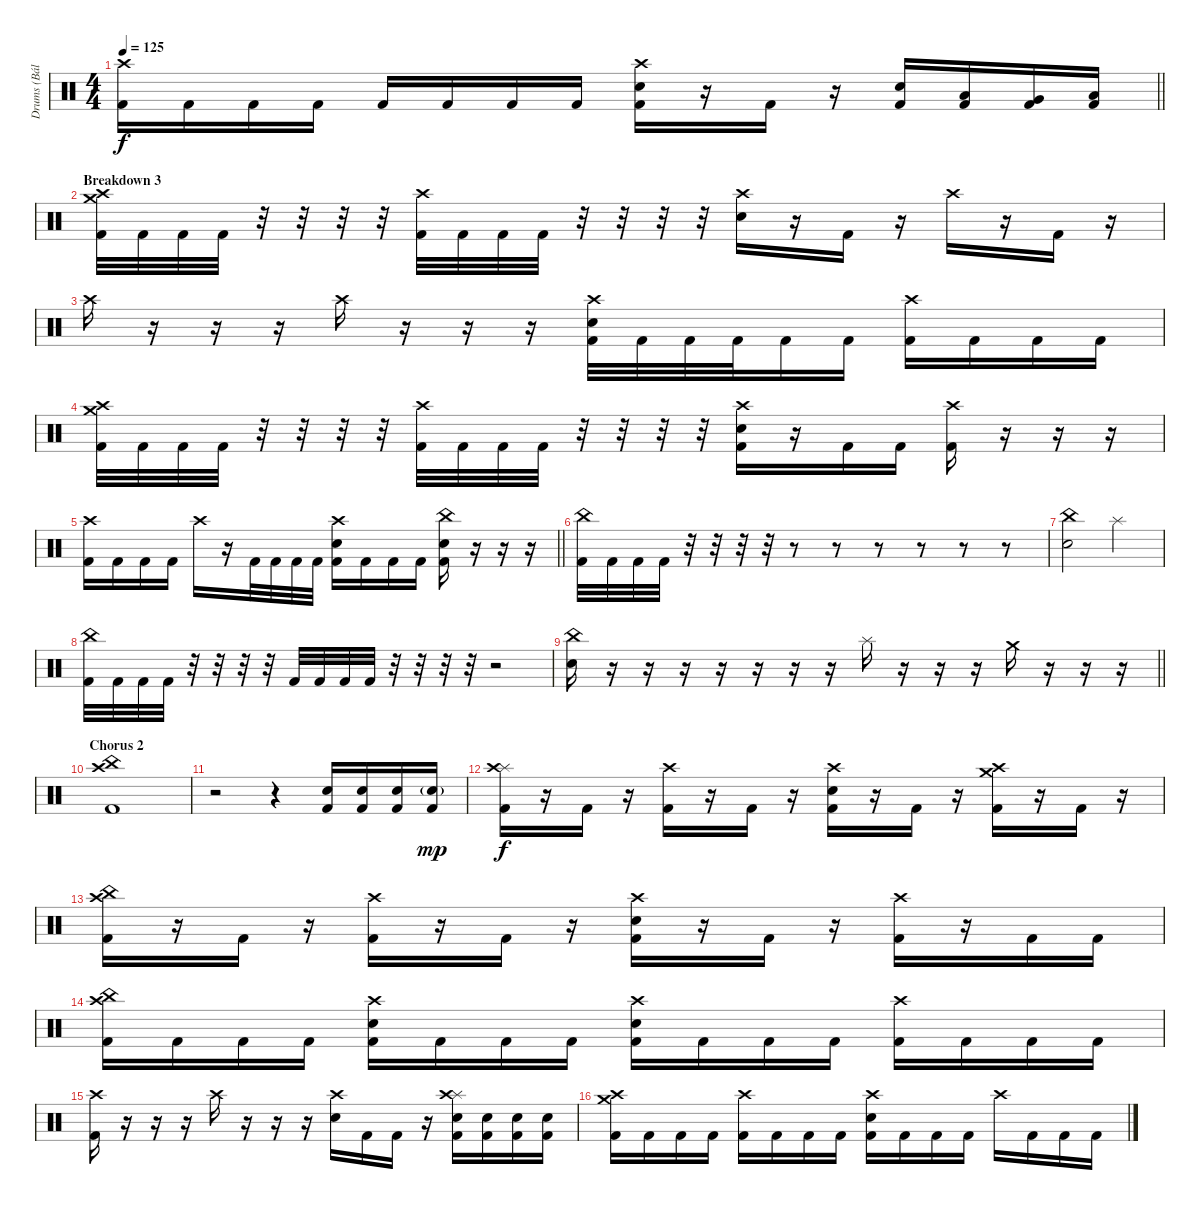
\track ("Drums (Bálint)" "Drums (Bál") {instrument percussion}
\staff {score}
\articulation defaults
\ts (4 4)
\tempo 125
\clef neutral
\barLineRight lightlight
\ks c
("Crash high (hit)" "Kick (hit) 2").16{dy f} "Kick (hit) 2".16 "Kick (hit) 2".16 "Kick (hit) 2".16 "Kick (hit) 2".16 "Kick (hit) 2".16 "Kick (hit) 2".16 "Kick (hit) 2".16 ("Crash high (hit)" "Electric Snare (hit)" "Kick (hit) 2").16 r.16 "Kick (hit) 2".16 r.16 ("Electric Snare (hit)" "Kick (hit) 2").16 ("Low Tom (hit)" "Kick (hit) 2").16 ("Very Low Tom (hit)" "Kick (hit) 2").16 ("Low Floor Tom (hit)" "Kick (hit) 2").16 |
\section ("" "Breakdown 3")
("Crash medium (hit)" "Crash high (hit)" "Kick (hit) 2").32 "Kick (hit) 2".32 "Kick (hit) 2".32 "Kick (hit) 2".32 r.32 r.32 r.32 r.32 ("Crash high (hit)" "Kick (hit) 2").32 "Kick (hit) 2".32 "Kick (hit) 2".32 "Kick (hit) 2".32 r.32 r.32 r.32 r.32 ("Crash high (hit)" "Electric Snare (hit)").16 r.16 "Kick (hit) 2".16 r.16 "Crash high (hit)".16 r.16 "Kick (hit) 2".16 r.16 |
"Crash high (hit)".16 r.16 r.16 r.16 "Crash high (hit)".16 r.16 r.16 r.16 ("Crash high (hit)" "Electric Snare (hit)" "Kick (hit) 2").32 "Kick (hit) 2".32 "Kick (hit) 2".32 "Kick (hit) 2".32 "Kick (hit) 2".16 "Kick (hit) 2".16 ("Crash high (hit)" "Kick (hit) 2").16 "Kick (hit) 2".16 "Kick (hit) 2".16 "Kick (hit) 2".16 |
("Crash medium (hit)" "Crash high (hit)" "Kick (hit) 2").32 "Kick (hit) 2".32 "Kick (hit) 2".32 "Kick (hit) 2".32 r.32 r.32 r.32 r.32 ("Crash high (hit)" "Kick (hit) 2").32 "Kick (hit) 2".32 "Kick (hit) 2".32 "Kick (hit) 2".32 r.32 r.32 r.32 r.32 ("Crash high (hit)" "Electric Snare (hit)" "Kick (hit) 2").16 r.16 "Kick (hit) 2".16 "Kick (hit) 2".16 ("Crash high (hit)" "Kick (hit) 2").16 r.16 r.16 r.16 |
\barLineRight lightlight
("Crash high (hit)" "Kick (hit) 2").16 "Kick (hit) 2".16 "Kick (hit) 2".16 "Kick (hit) 2".16 "Crash high (hit)".16 r.16 "Kick (hit) 2".32 "Kick (hit) 2".32 "Kick (hit) 2".32 "Kick (hit) 2".32 ("Crash high (hit)" "Electric Snare (hit)" "Kick (hit) 2").16 "Kick (hit) 2".16 "Kick (hit) 2".16 "Kick (hit) 2".16 ("China (hit)" "Electric Snare (hit)" "Kick (hit) 2").16 r.16 r.16 r.16 |
("China (hit)" "Kick (hit) 2").32 "Kick (hit) 2".32 "Kick (hit) 2".32 "Kick (hit) 2".32 r.32 r.32 r.32 r.32 r.8 r.8 r.8 r.8 r.8 r.8 |
("China (hit)" "Electric Snare (hit)").2 "Splash (hit)".2 |
("China (hit)" "Kick (hit) 2").32 "Kick (hit) 2".32 "Kick (hit) 2".32 "Kick (hit) 2".32 r.32 r.32 r.32 r.32 "Kick (hit) 2".32 "Kick (hit) 2".32 "Kick (hit) 2".32 "Kick (hit) 2".32 r.32 r.32 r.32 r.32 r.2 |
\barLineRight lightlight
("China (hit)" "Electric Snare (hit)").16 r.16 r.16 r.16 r.16 r.16 r.16 r.16 "Splash (hit)".16 r.16 r.16 r.16 "Crash medium (hit)".16 r.16 r.16 r.16 |
\section ("" "Chorus 2")
("China (hit)" "Crash high (hit)" "Kick (hit) 2").1 |
r.2 r.4 ("Electric Snare (hit)" "Kick (hit) 2").16 ("Electric Snare (hit)" "Kick (hit) 2").16 ("Electric Snare (hit)" "Kick (hit) 2").16 ("Electric Snare (hit)"{g} "Kick (hit) 2").16{dy mp} |
("Splash (hit)" "Crash high (hit)" "Kick (hit) 2").16{dy f} r.16 "Kick (hit) 2".16 r.16 ("Crash high (hit)" "Kick (hit) 2").16 r.16 "Kick (hit) 2".16 r.16 ("Crash high (hit)" "Electric Snare (hit)" "Kick (hit) 2").16 r.16 "Kick (hit) 2".16 r.16 ("Crash medium (hit)" "Crash high (hit)" "Kick (hit) 2").16 r.16 "Kick (hit) 2".16 r.16 |
("China (hit)" "Crash high (hit)" "Kick (hit) 2").16 r.16 "Kick (hit) 2".16 r.16 ("Crash high (hit)" "Kick (hit) 2").16 r.16 "Kick (hit) 2".16 r.16 ("Crash high (hit)" "Electric Snare (hit)" "Kick (hit) 2").16 r.16 "Kick (hit) 2".16 r.16 ("Crash high (hit)" "Kick (hit) 2").16 r.16 "Kick (hit) 2".16 "Kick (hit) 2".16 |
("China (hit)" "Crash high (hit)" "Kick (hit) 2").16 "Kick (hit) 2".16 "Kick (hit) 2".16 "Kick (hit) 2".16 ("Crash high (hit)" "Electric Snare (hit)" "Kick (hit) 2").16 "Kick (hit) 2".16 "Kick (hit) 2".16 "Kick (hit) 2".16 ("Crash high (hit)" "Electric Snare (hit)" "Kick (hit) 2").16 "Kick (hit) 2".16 "Kick (hit) 2".16 "Kick (hit) 2".16 ("Crash high (hit)" "Kick (hit) 2").16 "Kick (hit) 2".16 "Kick (hit) 2".16 "Kick (hit) 2".16 |
("Crash high (hit)" "Kick (hit) 2").16 r.16 r.16 r.16 "Crash high (hit)".16 r.16 r.16 r.16 ("Crash high (hit)" "Electric Snare (hit)").16 "Kick (hit) 2".16 "Kick (hit) 2".16 r.16 ("Splash (hit)" "Crash high (hit)" "Electric Snare (hit)" "Kick (hit) 2").16 ("Electric Snare (hit)" "Kick (hit) 2").16 ("Electric Snare (hit)" "Kick (hit) 2").16 ("Electric Snare (hit)" "Kick (hit) 2").16 |
("Crash medium (hit)" "Crash high (hit)" "Kick (hit) 2").16 "Kick (hit) 2".16 "Kick (hit) 2".16 "Kick (hit) 2".16 ("Crash high (hit)" "Kick (hit) 2").16 "Kick (hit) 2".16 "Kick (hit) 2".16 "Kick (hit) 2".16 ("Crash high (hit)" "Electric Snare (hit)" "Kick (hit) 2").16 "Kick (hit) 2".16 "Kick (hit) 2".16 "Kick (hit) 2".16 "Crash high (hit)".16 "Kick (hit) 2".16 "Kick (hit) 2".16 "Kick (hit) 2".16
